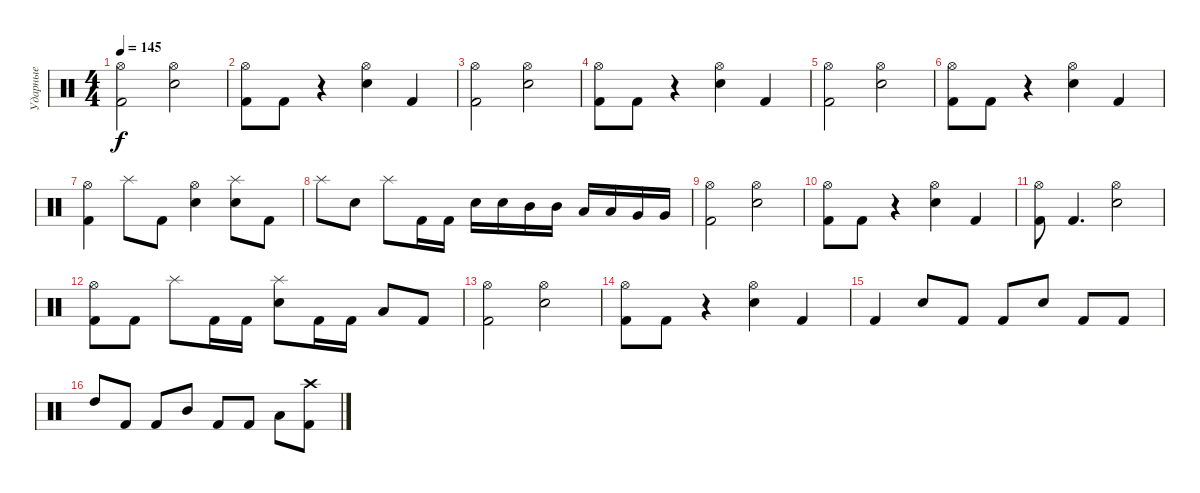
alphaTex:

\track ("Ударные" "Ударные") {instrument percussion}
\staff {score}
\articulation defaults
\ts (4 4)
\tempo 145
\clef neutral
\ks c
("Hi-Hat (open)" "Kick (hit) 2").2{dy f} ("Hi-Hat (open)" "Snare (hit) 2").2 |
("Hi-Hat (open)" "Kick (hit) 2").8 "Kick (hit) 2".8 r.4 ("Hi-Hat (open)" "Snare (hit) 2").4 "Kick (hit) 2".4 |
("Hi-Hat (open)" "Kick (hit) 2").2 ("Hi-Hat (open)" "Snare (hit) 2").2 |
("Hi-Hat (open)" "Kick (hit) 2").8 "Kick (hit) 2".8 r.4 ("Hi-Hat (open)" "Snare (hit) 2").4 "Kick (hit) 2".4 |
("Hi-Hat (open)" "Kick (hit) 2").2 ("Hi-Hat (open)" "Snare (hit) 2").2 |
("Hi-Hat (open)" "Kick (hit) 2").8 "Kick (hit) 2".8 r.4 ("Hi-Hat (open)" "Snare (hit) 2").4 "Kick (hit) 2".4 |
("Hi-Hat (open)" "Kick (hit) 2").4 "Splash (hit)".8 "Kick (hit) 2".8 ("Hi-Hat (open)" "Snare (hit) 2").4 ("Splash (hit)" "Snare (hit) 2").8 "Kick (hit) 2".8 |
"Splash (hit)".8 "Snare (hit) 2".8 "Splash (hit)".8 "Kick (hit) 2".16 "Kick (hit) 2".16 "Snare (hit) 2".16 "Snare (hit) 2".16 "Mid Tom (hit)".16 "Mid Tom (hit)".16 "Low Tom (hit)".16 "Low Tom (hit)".16 "Very Low Tom (hit)".16 "Very Low Tom (hit)".16 |
("Hi-Hat (open)" "Kick (hit) 2").2 ("Hi-Hat (open)" "Snare (hit) 2").2 |
("Hi-Hat (open)" "Kick (hit) 2").8 "Kick (hit) 2".8 r.4 ("Hi-Hat (open)" "Snare (hit) 2").4 "Kick (hit) 2".4 |
("Hi-Hat (open)" "Kick (hit) 2").8 "Kick (hit) 2".4{d} ("Hi-Hat (open)" "Snare (hit) 2").2 |
("Hi-Hat (open)" "Kick (hit) 2").8 "Kick (hit) 2".8 "Splash (hit)".8 "Kick (hit) 2".16 "Kick (hit) 2".16 ("Splash (hit)" "Snare (hit) 2").8 "Kick (hit) 2".16 "Kick (hit) 2".16 "Low Tom (hit)".8 "Kick (hit) 2".8 |
("Hi-Hat (open)" "Kick (hit) 2").2 ("Hi-Hat (open)" "Snare (hit) 2").2 |
("Hi-Hat (open)" "Kick (hit) 2").8 "Kick (hit) 2".8 r.4 ("Hi-Hat (open)" "Snare (hit) 2").4 "Kick (hit) 2".4 |
"Kick (hit) 2".4 "Snare (hit) 2".8 "Kick (hit) 2".8 "Kick (hit) 2".8 "Snare (hit) 2".8 "Kick (hit) 2".8 "Kick (hit) 2".8 |
"High Tom (hit)".8 "Kick (hit) 2".8 "Kick (hit) 2".8 "Mid Tom (hit)".8 "Kick (hit) 2".8 "Kick (hit) 2".8 "Low Tom (hit)".8 ("Crash high (hit)" "Kick (hit) 2").8
